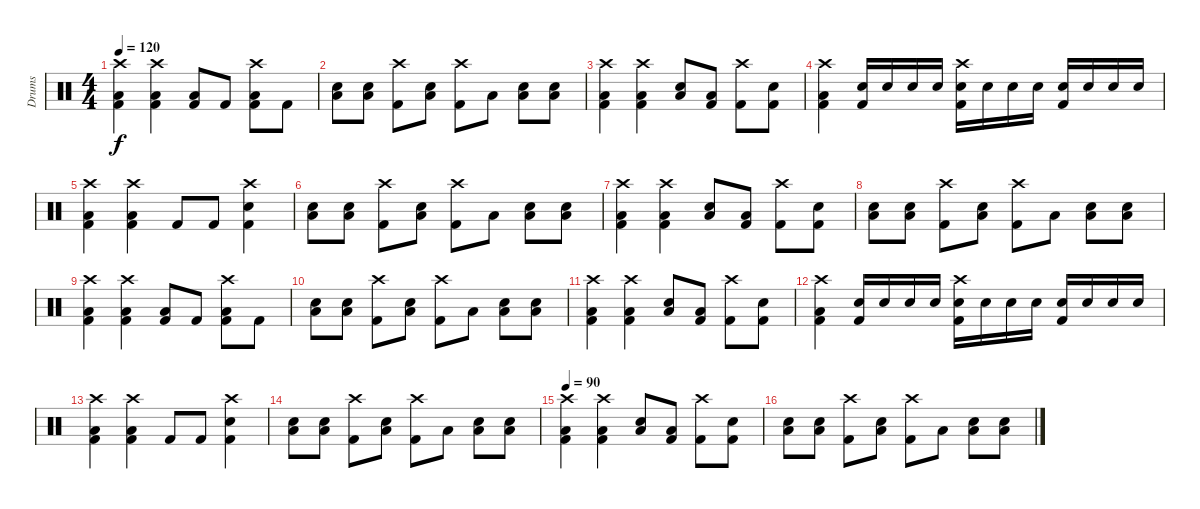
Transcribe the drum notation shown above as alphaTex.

\track ("Drums" "Drums") {instrument percussion}
\staff {score}
\articulation defaults
\ts (4 4)
\tempo 120
\clef neutral
\ks c
("Crash high (hit)" "Low Floor Tom (hit)" "Kick (hit) 2").4{dy f} ("Kick (hit) 2" "Low Floor Tom (hit)" "Crash high (hit)").4 ("Low Floor Tom (hit)" "Kick (hit) 2").8 "Kick (hit) 2".8 ("Crash high (hit)" "Low Floor Tom (hit)" "Kick (hit) 2").8 "Kick (hit) 2".8 |
("Snare (hit) 2" "Low Floor Tom (hit)").8 ("Snare (hit) 2" "Low Floor Tom (hit)").8 ("Crash high (hit)" "Kick (hit) 2").8 ("Snare (hit) 2" "Low Floor Tom (hit)").8 ("Crash high (hit)" "Kick (hit) 2").8 "Low Floor Tom (hit)".8 ("Snare (hit) 2" "Low Floor Tom (hit)").8 ("Snare (hit) 2" "Low Floor Tom (hit)").8 |
("Crash high (hit)" "Low Floor Tom (hit)" "Kick (hit) 2").4 ("Crash high (hit)" "Low Floor Tom (hit)" "Kick (hit) 2").4 ("Low Floor Tom (hit)" "Snare (hit) 2").8 ("Low Floor Tom (hit)" "Kick (hit) 2").8 ("Crash high (hit)" "Kick (hit) 2").8 ("Snare (hit) 2" "Kick (hit) 2").8 |
("Crash high (hit)" "Low Floor Tom (hit)" "Kick (hit) 2").4 ("Snare (hit) 2" "Kick (hit) 2").16 "Snare (hit) 2".16 "Snare (hit) 2".16 "Snare (hit) 2".16 ("Crash high (hit)" "Snare (hit) 2" "Kick (hit) 2").16 "Snare (hit) 2".16 "Snare (hit) 2".16 "Snare (hit) 2".16 ("Snare (hit) 2" "Kick (hit) 2").16 "Snare (hit) 2".16 "Snare (hit) 2".16 "Snare (hit) 2".16 |
("Crash high (hit)" "Low Floor Tom (hit)" "Kick (hit) 2").4 ("Crash high (hit)" "Low Floor Tom (hit)" "Kick (hit) 2").4 "Kick (hit) 2".8 "Kick (hit) 2".8 ("Crash high (hit)" "Snare (hit) 2" "Kick (hit) 2").4 |
("Snare (hit) 2" "Low Floor Tom (hit)").8 ("Snare (hit) 2" "Low Floor Tom (hit)").8 ("Crash high (hit)" "Kick (hit) 2").8 ("Snare (hit) 2" "Low Floor Tom (hit)").8 ("Crash high (hit)" "Kick (hit) 2").8 "Low Floor Tom (hit)".8 ("Snare (hit) 2" "Low Floor Tom (hit)").8 ("Snare (hit) 2" "Low Floor Tom (hit)").8 |
("Crash high (hit)" "Low Floor Tom (hit)" "Kick (hit) 2").4 ("Crash high (hit)" "Low Floor Tom (hit)" "Kick (hit) 2").4 ("Low Floor Tom (hit)" "Snare (hit) 2").8 ("Low Floor Tom (hit)" "Kick (hit) 2").8 ("Crash high (hit)" "Kick (hit) 2").8 ("Snare (hit) 2" "Kick (hit) 2").8 |
("Snare (hit) 2" "Low Floor Tom (hit)").8 ("Snare (hit) 2" "Low Floor Tom (hit)").8 ("Crash high (hit)" "Kick (hit) 2").8 ("Snare (hit) 2" "Low Floor Tom (hit)").8 ("Crash high (hit)" "Kick (hit) 2").8 "Low Floor Tom (hit)".8 ("Snare (hit) 2" "Low Floor Tom (hit)").8 ("Snare (hit) 2" "Low Floor Tom (hit)").8 |
("Crash high (hit)" "Low Floor Tom (hit)" "Kick (hit) 2").4 ("Kick (hit) 2" "Low Floor Tom (hit)" "Crash high (hit)").4 ("Low Floor Tom (hit)" "Kick (hit) 2").8 "Kick (hit) 2".8 ("Crash high (hit)" "Low Floor Tom (hit)" "Kick (hit) 2").8 "Kick (hit) 2".8 |
("Snare (hit) 2" "Low Floor Tom (hit)").8 ("Snare (hit) 2" "Low Floor Tom (hit)").8 ("Crash high (hit)" "Kick (hit) 2").8 ("Snare (hit) 2" "Low Floor Tom (hit)").8 ("Crash high (hit)" "Kick (hit) 2").8 "Low Floor Tom (hit)".8 ("Snare (hit) 2" "Low Floor Tom (hit)").8 ("Snare (hit) 2" "Low Floor Tom (hit)").8 |
("Crash high (hit)" "Low Floor Tom (hit)" "Kick (hit) 2").4 ("Crash high (hit)" "Low Floor Tom (hit)" "Kick (hit) 2").4 ("Low Floor Tom (hit)" "Snare (hit) 2").8 ("Low Floor Tom (hit)" "Kick (hit) 2").8 ("Crash high (hit)" "Kick (hit) 2").8 ("Snare (hit) 2" "Kick (hit) 2").8 |
("Crash high (hit)" "Low Floor Tom (hit)" "Kick (hit) 2").4 ("Snare (hit) 2" "Kick (hit) 2").16 "Snare (hit) 2".16 "Snare (hit) 2".16 "Snare (hit) 2".16 ("Crash high (hit)" "Snare (hit) 2" "Kick (hit) 2").16 "Snare (hit) 2".16 "Snare (hit) 2".16 "Snare (hit) 2".16 ("Snare (hit) 2" "Kick (hit) 2").16 "Snare (hit) 2".16 "Snare (hit) 2".16 "Snare (hit) 2".16 |
("Crash high (hit)" "Low Floor Tom (hit)" "Kick (hit) 2").4 ("Crash high (hit)" "Low Floor Tom (hit)" "Kick (hit) 2").4 "Kick (hit) 2".8 "Kick (hit) 2".8 ("Crash high (hit)" "Snare (hit) 2" "Kick (hit) 2").4 |
("Snare (hit) 2" "Low Floor Tom (hit)").8 ("Snare (hit) 2" "Low Floor Tom (hit)").8 ("Crash high (hit)" "Kick (hit) 2").8 ("Snare (hit) 2" "Low Floor Tom (hit)").8 ("Crash high (hit)" "Kick (hit) 2").8 "Low Floor Tom (hit)".8 ("Snare (hit) 2" "Low Floor Tom (hit)").8 ("Snare (hit) 2" "Low Floor Tom (hit)").8 |
\tempo 90
("Crash high (hit)" "Low Floor Tom (hit)" "Kick (hit) 2").4 ("Crash high (hit)" "Low Floor Tom (hit)" "Kick (hit) 2").4 ("Low Floor Tom (hit)" "Snare (hit) 2").8 ("Low Floor Tom (hit)" "Kick (hit) 2").8 ("Crash high (hit)" "Kick (hit) 2").8 ("Snare (hit) 2" "Kick (hit) 2").8 |
("Snare (hit) 2" "Low Floor Tom (hit)").8 ("Snare (hit) 2" "Low Floor Tom (hit)").8 ("Crash high (hit)" "Kick (hit) 2").8 ("Snare (hit) 2" "Low Floor Tom (hit)").8 ("Crash high (hit)" "Kick (hit) 2").8 "Low Floor Tom (hit)".8 ("Snare (hit) 2" "Low Floor Tom (hit)").8 ("Snare (hit) 2" "Low Floor Tom (hit)").8
